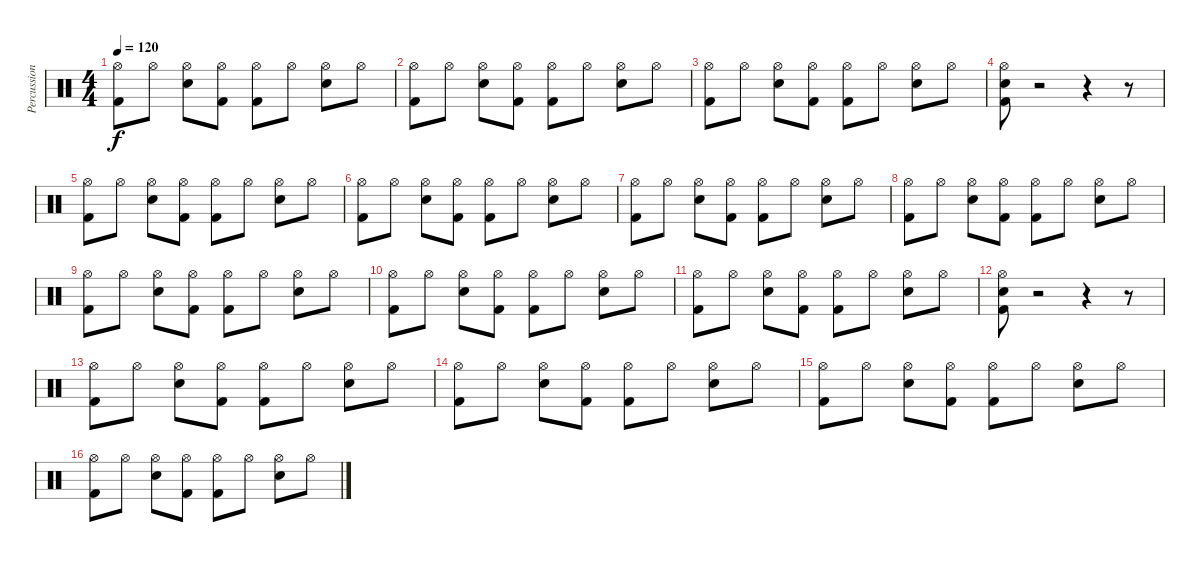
\track ("Percussion" "Percussion") {instrument percussion}
\staff {score}
\articulation defaults
\ts (4 4)
\tempo 120
\clef neutral
\ks c
("Hi-Hat (open)" "Kick (hit) 2").8{dy f} "Hi-Hat (open)".8 ("Hi-Hat (open)" "Snare (hit) 2").8 ("Hi-Hat (open)" "Kick (hit) 2").8 ("Hi-Hat (open)" "Kick (hit) 2").8 "Hi-Hat (open)".8 ("Hi-Hat (open)" "Snare (hit) 2").8 "Hi-Hat (open)".8 |
("Hi-Hat (open)" "Kick (hit) 2").8 "Hi-Hat (open)".8 ("Hi-Hat (open)" "Snare (hit) 2").8 ("Hi-Hat (open)" "Kick (hit) 2").8 ("Hi-Hat (open)" "Kick (hit) 2").8 "Hi-Hat (open)".8 ("Hi-Hat (open)" "Snare (hit) 2").8 "Hi-Hat (open)".8 |
("Hi-Hat (open)" "Kick (hit) 2").8 "Hi-Hat (open)".8 ("Hi-Hat (open)" "Snare (hit) 2").8 ("Hi-Hat (open)" "Kick (hit) 2").8 ("Hi-Hat (open)" "Kick (hit) 2").8 "Hi-Hat (open)".8 ("Hi-Hat (open)" "Snare (hit) 2").8 "Hi-Hat (open)".8 |
("Hi-Hat (open)" "Snare (hit) 2" "Kick (hit) 2").8 r.2 r.4 r.8 |
("Hi-Hat (open)" "Kick (hit) 2").8 "Hi-Hat (open)".8 ("Hi-Hat (open)" "Snare (hit) 2").8 ("Hi-Hat (open)" "Kick (hit) 2").8 ("Hi-Hat (open)" "Kick (hit) 2").8 "Hi-Hat (open)".8 ("Hi-Hat (open)" "Snare (hit) 2").8 "Hi-Hat (open)".8 |
("Hi-Hat (open)" "Kick (hit) 2").8 "Hi-Hat (open)".8 ("Hi-Hat (open)" "Snare (hit) 2").8 ("Hi-Hat (open)" "Kick (hit) 2").8 ("Hi-Hat (open)" "Kick (hit) 2").8 "Hi-Hat (open)".8 ("Hi-Hat (open)" "Snare (hit) 2").8 "Hi-Hat (open)".8 |
("Hi-Hat (open)" "Kick (hit) 2").8 "Hi-Hat (open)".8 ("Hi-Hat (open)" "Snare (hit) 2").8 ("Hi-Hat (open)" "Kick (hit) 2").8 ("Hi-Hat (open)" "Kick (hit) 2").8 "Hi-Hat (open)".8 ("Hi-Hat (open)" "Snare (hit) 2").8 "Hi-Hat (open)".8 |
("Hi-Hat (open)" "Kick (hit) 2").8 "Hi-Hat (open)".8 ("Hi-Hat (open)" "Snare (hit) 2").8 ("Hi-Hat (open)" "Kick (hit) 2").8 ("Hi-Hat (open)" "Kick (hit) 2").8 "Hi-Hat (open)".8 ("Hi-Hat (open)" "Snare (hit) 2").8 "Hi-Hat (open)".8 |
("Hi-Hat (open)" "Kick (hit) 2").8 "Hi-Hat (open)".8 ("Hi-Hat (open)" "Snare (hit) 2").8 ("Hi-Hat (open)" "Kick (hit) 2").8 ("Hi-Hat (open)" "Kick (hit) 2").8 "Hi-Hat (open)".8 ("Hi-Hat (open)" "Snare (hit) 2").8 "Hi-Hat (open)".8 |
("Hi-Hat (open)" "Kick (hit) 2").8 "Hi-Hat (open)".8 ("Hi-Hat (open)" "Snare (hit) 2").8 ("Hi-Hat (open)" "Kick (hit) 2").8 ("Hi-Hat (open)" "Kick (hit) 2").8 "Hi-Hat (open)".8 ("Hi-Hat (open)" "Snare (hit) 2").8 "Hi-Hat (open)".8 |
("Hi-Hat (open)" "Kick (hit) 2").8 "Hi-Hat (open)".8 ("Hi-Hat (open)" "Snare (hit) 2").8 ("Hi-Hat (open)" "Kick (hit) 2").8 ("Hi-Hat (open)" "Kick (hit) 2").8 "Hi-Hat (open)".8 ("Hi-Hat (open)" "Snare (hit) 2").8 "Hi-Hat (open)".8 |
("Hi-Hat (open)" "Snare (hit) 2" "Kick (hit) 2").8 r.2 r.4 r.8 |
("Hi-Hat (open)" "Kick (hit) 2").8 "Hi-Hat (open)".8 ("Hi-Hat (open)" "Snare (hit) 2").8 ("Hi-Hat (open)" "Kick (hit) 2").8 ("Hi-Hat (open)" "Kick (hit) 2").8 "Hi-Hat (open)".8 ("Hi-Hat (open)" "Snare (hit) 2").8 "Hi-Hat (open)".8 |
("Hi-Hat (open)" "Kick (hit) 2").8 "Hi-Hat (open)".8 ("Hi-Hat (open)" "Snare (hit) 2").8 ("Hi-Hat (open)" "Kick (hit) 2").8 ("Hi-Hat (open)" "Kick (hit) 2").8 "Hi-Hat (open)".8 ("Hi-Hat (open)" "Snare (hit) 2").8 "Hi-Hat (open)".8 |
("Hi-Hat (open)" "Kick (hit) 2").8 "Hi-Hat (open)".8 ("Hi-Hat (open)" "Snare (hit) 2").8 ("Hi-Hat (open)" "Kick (hit) 2").8 ("Hi-Hat (open)" "Kick (hit) 2").8 "Hi-Hat (open)".8 ("Hi-Hat (open)" "Snare (hit) 2").8 "Hi-Hat (open)".8 |
("Hi-Hat (open)" "Kick (hit) 2").8 "Hi-Hat (open)".8 ("Hi-Hat (open)" "Snare (hit) 2").8 ("Hi-Hat (open)" "Kick (hit) 2").8 ("Hi-Hat (open)" "Kick (hit) 2").8 "Hi-Hat (open)".8 ("Hi-Hat (open)" "Snare (hit) 2").8 "Hi-Hat (open)".8
